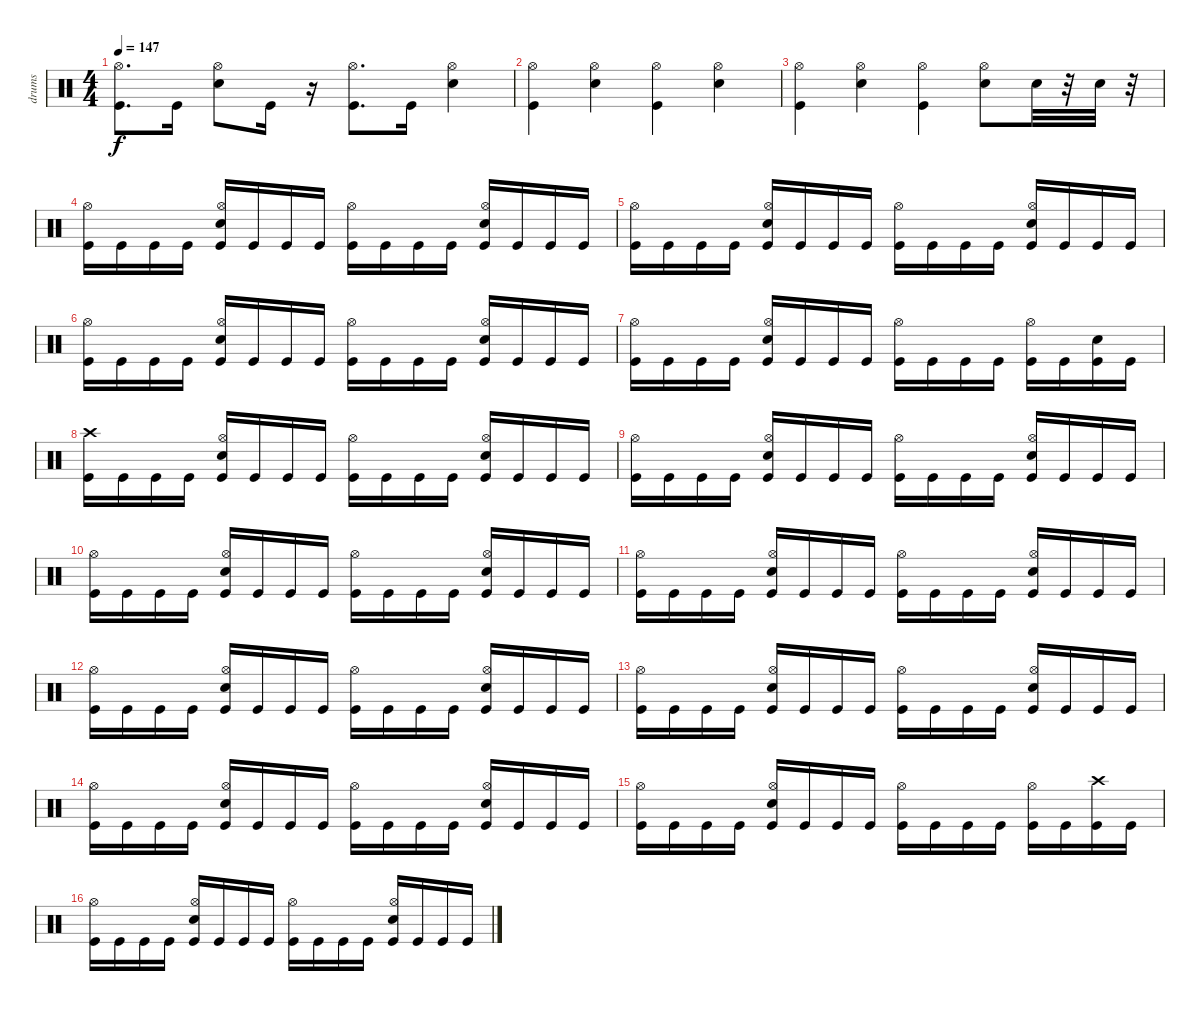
\track ("drums" "drums") {instrument percussion}
\staff {score}
\articulation defaults
\ts (4 4)
\tempo 147
\clef neutral
\ks c
("Kick (hit)" "Hi-Hat (open)").8{d dy f} "Kick (hit)".16 ("Snare (hit) 2" "Hi-Hat (open)").8 "Kick (hit)".16 r.16 ("Kick (hit)" "Hi-Hat (open)").8{d} "Kick (hit)".16 ("Snare (hit) 2" "Hi-Hat (open)").4 |
("Hi-Hat (open)" "Kick (hit)").4 ("Snare (hit) 2" "Hi-Hat (open)").4 ("Hi-Hat (open)" "Kick (hit)").4 ("Hi-Hat (open)" "Snare (hit) 2").4 |
("Kick (hit)" "Hi-Hat (open)").4 ("Hi-Hat (open)" "Snare (hit) 2").4 ("Kick (hit)" "Hi-Hat (open)").4 ("Hi-Hat (open)" "Snare (hit) 2").8 "Snare (hit) 2".32 r.32 "Snare (hit) 2".32 r.32 |
("Hi-Hat (open)" "Kick (hit)").16 "Kick (hit)".16 "Kick (hit)".16 "Kick (hit)".16 ("Kick (hit)" "Snare (hit) 2" "Hi-Hat (open)").16 "Kick (hit)".16 "Kick (hit)".16 "Kick (hit)".16 ("Hi-Hat (open)" "Kick (hit)").16 "Kick (hit)".16 "Kick (hit)".16 "Kick (hit)".16 ("Snare (hit) 2" "Hi-Hat (open)" "Kick (hit)").16 "Kick (hit)".16 "Kick (hit)".16 "Kick (hit)".16 |
("Kick (hit)" "Hi-Hat (open)").16 "Kick (hit)".16 "Kick (hit)".16 "Kick (hit)".16 ("Hi-Hat (open)" "Kick (hit)" "Snare (hit) 2").16 "Kick (hit)".16 "Kick (hit)".16 "Kick (hit)".16 ("Hi-Hat (open)" "Kick (hit)").16 "Kick (hit)".16 "Kick (hit)".16 "Kick (hit)".16 ("Hi-Hat (open)" "Kick (hit)" "Snare (hit) 2").16 "Kick (hit)".16 "Kick (hit)".16 "Kick (hit)".16 |
("Hi-Hat (open)" "Kick (hit)").16 "Kick (hit)".16 "Kick (hit)".16 "Kick (hit)".16 ("Hi-Hat (open)" "Snare (hit) 2" "Kick (hit)").16 "Kick (hit)".16 "Kick (hit)".16 "Kick (hit)".16 ("Hi-Hat (open)" "Kick (hit)").16 "Kick (hit)".16 "Kick (hit)".16 "Kick (hit)".16 ("Snare (hit) 2" "Kick (hit)" "Hi-Hat (open)").16 "Kick (hit)".16 "Kick (hit)".16 "Kick (hit)".16 |
("Hi-Hat (open)" "Kick (hit)").16 "Kick (hit)".16 "Kick (hit)".16 "Kick (hit)".16 ("Hi-Hat (open)" "Snare (hit) 2" "Kick (hit)").16 "Kick (hit)".16 "Kick (hit)".16 "Kick (hit)".16 ("Kick (hit)" "Hi-Hat (open)").16 "Kick (hit)".16 "Kick (hit)".16 "Kick (hit)".16 ("Kick (hit)" "Hi-Hat (open)").16 "Kick (hit)".16 ("Kick (hit)" "Snare (hit) 2").16 "Kick (hit)".16 |
("Kick (hit)" "Crash high (hit)").16 "Kick (hit)".16 "Kick (hit)".16 "Kick (hit)".16 ("Kick (hit)" "Snare (hit) 2" "Hi-Hat (open)").16 "Kick (hit)".16 "Kick (hit)".16 "Kick (hit)".16 ("Kick (hit)" "Hi-Hat (open)").16 "Kick (hit)".16 "Kick (hit)".16 "Kick (hit)".16 ("Snare (hit) 2" "Kick (hit)" "Hi-Hat (open)").16 "Kick (hit)".16 "Kick (hit)".16 "Kick (hit)".16 |
("Kick (hit)" "Hi-Hat (open)").16 "Kick (hit)".16 "Kick (hit)".16 "Kick (hit)".16 ("Snare (hit) 2" "Hi-Hat (open)" "Kick (hit)").16 "Kick (hit)".16 "Kick (hit)".16 "Kick (hit)".16 ("Hi-Hat (open)" "Kick (hit)").16 "Kick (hit)".16 "Kick (hit)".16 "Kick (hit)".16 ("Snare (hit) 2" "Kick (hit)" "Hi-Hat (open)").16 "Kick (hit)".16 "Kick (hit)".16 "Kick (hit)".16 |
("Hi-Hat (open)" "Kick (hit)").16 "Kick (hit)".16 "Kick (hit)".16 "Kick (hit)".16 ("Snare (hit) 2" "Kick (hit)" "Hi-Hat (open)").16 "Kick (hit)".16 "Kick (hit)".16 "Kick (hit)".16 ("Hi-Hat (open)" "Kick (hit)").16 "Kick (hit)".16 "Kick (hit)".16 "Kick (hit)".16 ("Kick (hit)" "Hi-Hat (open)" "Snare (hit) 2").16 "Kick (hit)".16 "Kick (hit)".16 "Kick (hit)".16 |
("Hi-Hat (open)" "Kick (hit)").16 "Kick (hit)".16 "Kick (hit)".16 "Kick (hit)".16 ("Hi-Hat (open)" "Snare (hit) 2" "Kick (hit)").16 "Kick (hit)".16 "Kick (hit)".16 "Kick (hit)".16 ("Kick (hit)" "Hi-Hat (open)").16 "Kick (hit)".16 "Kick (hit)".16 "Kick (hit)".16 ("Kick (hit)" "Hi-Hat (open)" "Snare (hit) 2").16 "Kick (hit)".16 "Kick (hit)".16 "Kick (hit)".16 |
("Kick (hit)" "Hi-Hat (open)").16 "Kick (hit)".16 "Kick (hit)".16 "Kick (hit)".16 ("Kick (hit)" "Snare (hit) 2" "Hi-Hat (open)").16 "Kick (hit)".16 "Kick (hit)".16 "Kick (hit)".16 ("Hi-Hat (open)" "Kick (hit)").16 "Kick (hit)".16 "Kick (hit)".16 "Kick (hit)".16 ("Snare (hit) 2" "Hi-Hat (open)" "Kick (hit)").16 "Kick (hit)".16 "Kick (hit)".16 "Kick (hit)".16 |
("Hi-Hat (open)" "Kick (hit)").16 "Kick (hit)".16 "Kick (hit)".16 "Kick (hit)".16 ("Hi-Hat (open)" "Snare (hit) 2" "Kick (hit)").16 "Kick (hit)".16 "Kick (hit)".16 "Kick (hit)".16 ("Kick (hit)" "Hi-Hat (open)").16 "Kick (hit)".16 "Kick (hit)".16 "Kick (hit)".16 ("Kick (hit)" "Snare (hit) 2" "Hi-Hat (open)").16 "Kick (hit)".16 "Kick (hit)".16 "Kick (hit)".16 |
("Hi-Hat (open)" "Kick (hit)").16 "Kick (hit)".16 "Kick (hit)".16 "Kick (hit)".16 ("Hi-Hat (open)" "Snare (hit) 2" "Kick (hit)").16 "Kick (hit)".16 "Kick (hit)".16 "Kick (hit)".16 ("Hi-Hat (open)" "Kick (hit)").16 "Kick (hit)".16 "Kick (hit)".16 "Kick (hit)".16 ("Kick (hit)" "Hi-Hat (open)" "Snare (hit) 2").16 "Kick (hit)".16 "Kick (hit)".16 "Kick (hit)".16 |
("Kick (hit)" "Hi-Hat (open)").16 "Kick (hit)".16 "Kick (hit)".16 "Kick (hit)".16 ("Snare (hit) 2" "Kick (hit)" "Hi-Hat (open)").16 "Kick (hit)".16 "Kick (hit)".16 "Kick (hit)".16 ("Kick (hit)" "Hi-Hat (open)").16 "Kick (hit)".16 "Kick (hit)".16 "Kick (hit)".16 ("Kick (hit)" "Hi-Hat (open)").16 "Kick (hit)".16 ("Kick (hit)" "Crash high (hit)").16 "Kick (hit)".16 |
("Hi-Hat (open)" "Kick (hit)").16 "Kick (hit)".16 "Kick (hit)".16 "Kick (hit)".16 ("Hi-Hat (open)" "Kick (hit)" "Snare (hit) 2").16 "Kick (hit)".16 "Kick (hit)".16 "Kick (hit)".16 ("Hi-Hat (open)" "Kick (hit)").16 "Kick (hit)".16 "Kick (hit)".16 "Kick (hit)".16 ("Snare (hit) 2" "Kick (hit)" "Hi-Hat (open)").16 "Kick (hit)".16 "Kick (hit)".16 "Kick (hit)".16
